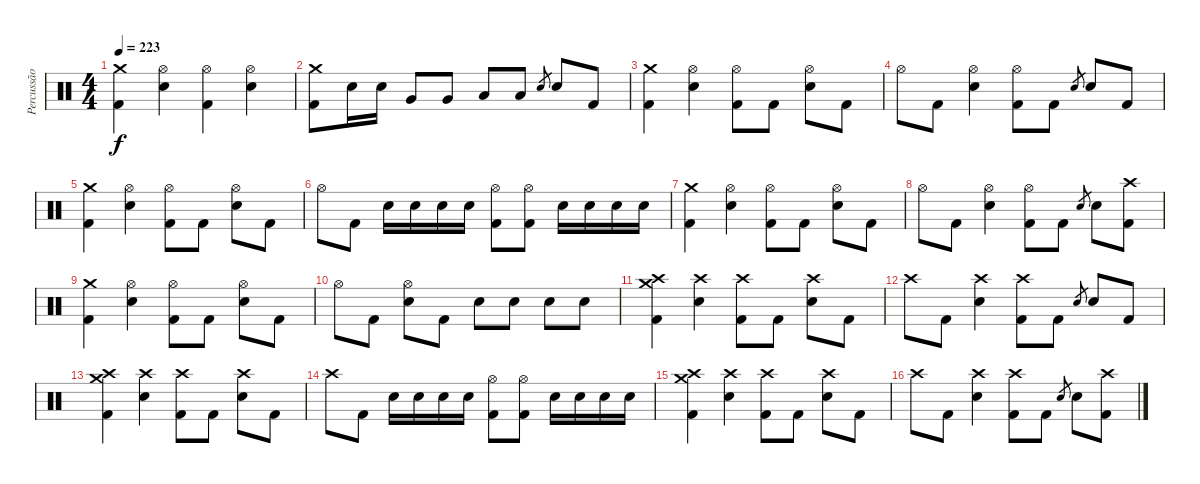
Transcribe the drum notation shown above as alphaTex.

\track ("Percussão" "Percussão") {instrument percussion}
\staff {score}
\articulation defaults
\ts (4 4)
\tempo 223
\clef neutral
\ks c
("Crash medium (hit)" "Kick (hit) 2").4{dy f} ("Hi-Hat (open)" "Snare (hit) 2").4 ("Hi-Hat (open)" "Kick (hit) 2").4 ("Hi-Hat (open)" "Snare (hit) 2").4 |
("Crash medium (hit)" "Kick (hit) 2").8 "Snare (hit) 2".16 "Snare (hit) 2".16 "Very Low Tom (hit)".8 "Very Low Tom (hit)".8 "Low Floor Tom (hit)".8 "Low Floor Tom (hit)".8 "Snare (hit) 2".8{gr} "Snare (hit) 2".8 "Kick (hit) 2".8 |
("Crash medium (hit)" "Kick (hit) 2").4 ("Hi-Hat (open)" "Snare (hit) 2").4 ("Hi-Hat (open)" "Kick (hit) 2").8 "Kick (hit) 2".8 ("Hi-Hat (open)" "Snare (hit) 2").8 "Kick (hit) 2".8 |
"Hi-Hat (open)".8 "Kick (hit) 2".8 ("Hi-Hat (open)" "Snare (hit) 2").4 ("Hi-Hat (open)" "Kick (hit) 2").8 "Kick (hit) 2".8 "Snare (hit) 2".8{gr} "Snare (hit) 2".8 "Kick (hit) 2".8 |
("Crash medium (hit)" "Kick (hit) 2").4 ("Hi-Hat (open)" "Snare (hit) 2").4 ("Hi-Hat (open)" "Kick (hit) 2").8 "Kick (hit) 2".8 ("Hi-Hat (open)" "Snare (hit) 2").8 "Kick (hit) 2".8 |
"Hi-Hat (open)".8 "Kick (hit) 2".8 "Snare (hit) 2".16 "Snare (hit) 2".16 "Snare (hit) 2".16 "Snare (hit) 2".16 ("Hi-Hat (open)" "Kick (hit) 2").8 ("Hi-Hat (open)" "Kick (hit) 2").8 "Snare (hit) 2".16 "Snare (hit) 2".16 "Snare (hit) 2".16 "Snare (hit) 2".16 |
("Crash medium (hit)" "Kick (hit) 2").4 ("Hi-Hat (open)" "Snare (hit) 2").4 ("Hi-Hat (open)" "Kick (hit) 2").8 "Kick (hit) 2".8 ("Hi-Hat (open)" "Snare (hit) 2").8 "Kick (hit) 2".8 |
"Hi-Hat (open)".8 "Kick (hit) 2".8 ("Hi-Hat (open)" "Snare (hit) 2").4 ("Hi-Hat (open)" "Kick (hit) 2").8 "Kick (hit) 2".8 "Snare (hit) 2".8{gr} "Snare (hit) 2".8 ("Crash high (hit)" "Kick (hit) 2").8 |
("Crash medium (hit)" "Kick (hit) 2").4 ("Hi-Hat (open)" "Snare (hit) 2").4 ("Hi-Hat (open)" "Kick (hit) 2").8 "Kick (hit) 2".8 ("Hi-Hat (open)" "Snare (hit) 2").8 "Kick (hit) 2".8 |
"Hi-Hat (open)".8 "Kick (hit) 2".8 ("Hi-Hat (open)" "Snare (hit) 2").8 "Kick (hit) 2".8 "Snare (hit) 2".8 "Snare (hit) 2".8 "Snare (hit) 2".8 "Snare (hit) 2".8 |
("Crash medium (hit)" "Kick (hit) 2" "Crash high (hit)").4 ("Crash high (hit)" "Snare (hit) 2").4 ("Crash high (hit)" "Kick (hit) 2").8 "Kick (hit) 2".8 ("Crash high (hit)" "Snare (hit) 2").8 "Kick (hit) 2".8 |
"Crash high (hit)".8 "Kick (hit) 2".8 ("Crash high (hit)" "Snare (hit) 2").4 ("Crash high (hit)" "Kick (hit) 2").8 "Kick (hit) 2".8 "Snare (hit) 2".8{gr} "Snare (hit) 2".8 "Kick (hit) 2".8 |
("Crash medium (hit)" "Kick (hit) 2" "Crash high (hit)").4 ("Crash high (hit)" "Snare (hit) 2").4 ("Crash high (hit)" "Kick (hit) 2").8 "Kick (hit) 2".8 ("Crash high (hit)" "Snare (hit) 2").8 "Kick (hit) 2".8 |
"Crash high (hit)".8 "Kick (hit) 2".8 "Snare (hit) 2".16 "Snare (hit) 2".16 "Snare (hit) 2".16 "Snare (hit) 2".16 ("Hi-Hat (open)" "Kick (hit) 2").8 ("Hi-Hat (open)" "Kick (hit) 2").8 "Snare (hit) 2".16 "Snare (hit) 2".16 "Snare (hit) 2".16 "Snare (hit) 2".16 |
("Crash medium (hit)" "Kick (hit) 2" "Crash high (hit)").4 ("Crash high (hit)" "Snare (hit) 2").4 ("Crash high (hit)" "Kick (hit) 2").8 "Kick (hit) 2".8 ("Crash high (hit)" "Snare (hit) 2").8 "Kick (hit) 2".8 |
"Crash high (hit)".8 "Kick (hit) 2".8 ("Crash high (hit)" "Snare (hit) 2").4 ("Crash high (hit)" "Kick (hit) 2").8 "Kick (hit) 2".8 "Snare (hit) 2".8{gr} "Snare (hit) 2".8 ("Crash high (hit)" "Kick (hit) 2").8
